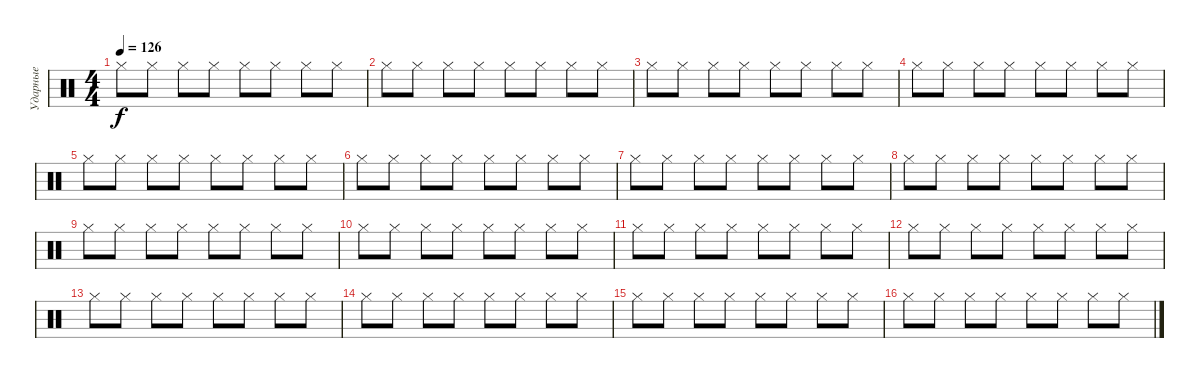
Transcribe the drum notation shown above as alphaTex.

\track ("Ударные" "Ударные") {instrument percussion}
\staff {score}
\articulation defaults
\ts (4 4)
\tempo 126
\clef neutral
\ks c "Hi-Hat (closed)".8{dy f} "Hi-Hat (closed)".8 "Hi-Hat (closed)".8 "Hi-Hat (closed)".8 "Hi-Hat (closed)".8 "Hi-Hat (closed)".8 "Hi-Hat (closed)".8 "Hi-Hat (closed)".8
|
"Hi-Hat (closed)".8 "Hi-Hat (closed)".8 "Hi-Hat (closed)".8 "Hi-Hat (closed)".8 "Hi-Hat (closed)".8 "Hi-Hat (closed)".8 "Hi-Hat (closed)".8 "Hi-Hat (closed)".8 |
"Hi-Hat (closed)".8 "Hi-Hat (closed)".8 "Hi-Hat (closed)".8 "Hi-Hat (closed)".8 "Hi-Hat (closed)".8 "Hi-Hat (closed)".8 "Hi-Hat (closed)".8 "Hi-Hat (closed)".8 |
"Hi-Hat (closed)".8 "Hi-Hat (closed)".8 "Hi-Hat (closed)".8 "Hi-Hat (closed)".8 "Hi-Hat (closed)".8 "Hi-Hat (closed)".8 "Hi-Hat (closed)".8 "Hi-Hat (closed)".8 |
"Hi-Hat (closed)".8 "Hi-Hat (closed)".8 "Hi-Hat (closed)".8 "Hi-Hat (closed)".8 "Hi-Hat (closed)".8 "Hi-Hat (closed)".8 "Hi-Hat (closed)".8 "Hi-Hat (closed)".8 |
"Hi-Hat (closed)".8 "Hi-Hat (closed)".8 "Hi-Hat (closed)".8 "Hi-Hat (closed)".8 "Hi-Hat (closed)".8 "Hi-Hat (closed)".8 "Hi-Hat (closed)".8 "Hi-Hat (closed)".8 |
"Hi-Hat (closed)".8 "Hi-Hat (closed)".8 "Hi-Hat (closed)".8 "Hi-Hat (closed)".8 "Hi-Hat (closed)".8 "Hi-Hat (closed)".8 "Hi-Hat (closed)".8 "Hi-Hat (closed)".8 |
"Hi-Hat (closed)".8 "Hi-Hat (closed)".8 "Hi-Hat (closed)".8 "Hi-Hat (closed)".8 "Hi-Hat (closed)".8 "Hi-Hat (closed)".8 "Hi-Hat (closed)".8 "Hi-Hat (closed)".8 |
"Hi-Hat (closed)".8 "Hi-Hat (closed)".8 "Hi-Hat (closed)".8 "Hi-Hat (closed)".8 "Hi-Hat (closed)".8 "Hi-Hat (closed)".8 "Hi-Hat (closed)".8 "Hi-Hat (closed)".8 |
"Hi-Hat (closed)".8 "Hi-Hat (closed)".8 "Hi-Hat (closed)".8 "Hi-Hat (closed)".8 "Hi-Hat (closed)".8 "Hi-Hat (closed)".8 "Hi-Hat (closed)".8 "Hi-Hat (closed)".8 |
"Hi-Hat (closed)".8 "Hi-Hat (closed)".8 "Hi-Hat (closed)".8 "Hi-Hat (closed)".8 "Hi-Hat (closed)".8 "Hi-Hat (closed)".8 "Hi-Hat (closed)".8 "Hi-Hat (closed)".8 |
"Hi-Hat (closed)".8 "Hi-Hat (closed)".8 "Hi-Hat (closed)".8 "Hi-Hat (closed)".8 "Hi-Hat (closed)".8 "Hi-Hat (closed)".8 "Hi-Hat (closed)".8 "Hi-Hat (closed)".8 |
"Hi-Hat (closed)".8 "Hi-Hat (closed)".8 "Hi-Hat (closed)".8 "Hi-Hat (closed)".8 "Hi-Hat (closed)".8 "Hi-Hat (closed)".8 "Hi-Hat (closed)".8 "Hi-Hat (closed)".8 |
"Hi-Hat (closed)".8 "Hi-Hat (closed)".8 "Hi-Hat (closed)".8 "Hi-Hat (closed)".8 "Hi-Hat (closed)".8 "Hi-Hat (closed)".8 "Hi-Hat (closed)".8 "Hi-Hat (closed)".8 |
"Hi-Hat (closed)".8 "Hi-Hat (closed)".8 "Hi-Hat (closed)".8 "Hi-Hat (closed)".8 "Hi-Hat (closed)".8 "Hi-Hat (closed)".8 "Hi-Hat (closed)".8 "Hi-Hat (closed)".8 |
"Hi-Hat (closed)".8 "Hi-Hat (closed)".8 "Hi-Hat (closed)".8 "Hi-Hat (closed)".8 "Hi-Hat (closed)".8 "Hi-Hat (closed)".8 "Hi-Hat (closed)".8 "Hi-Hat (closed)".8
